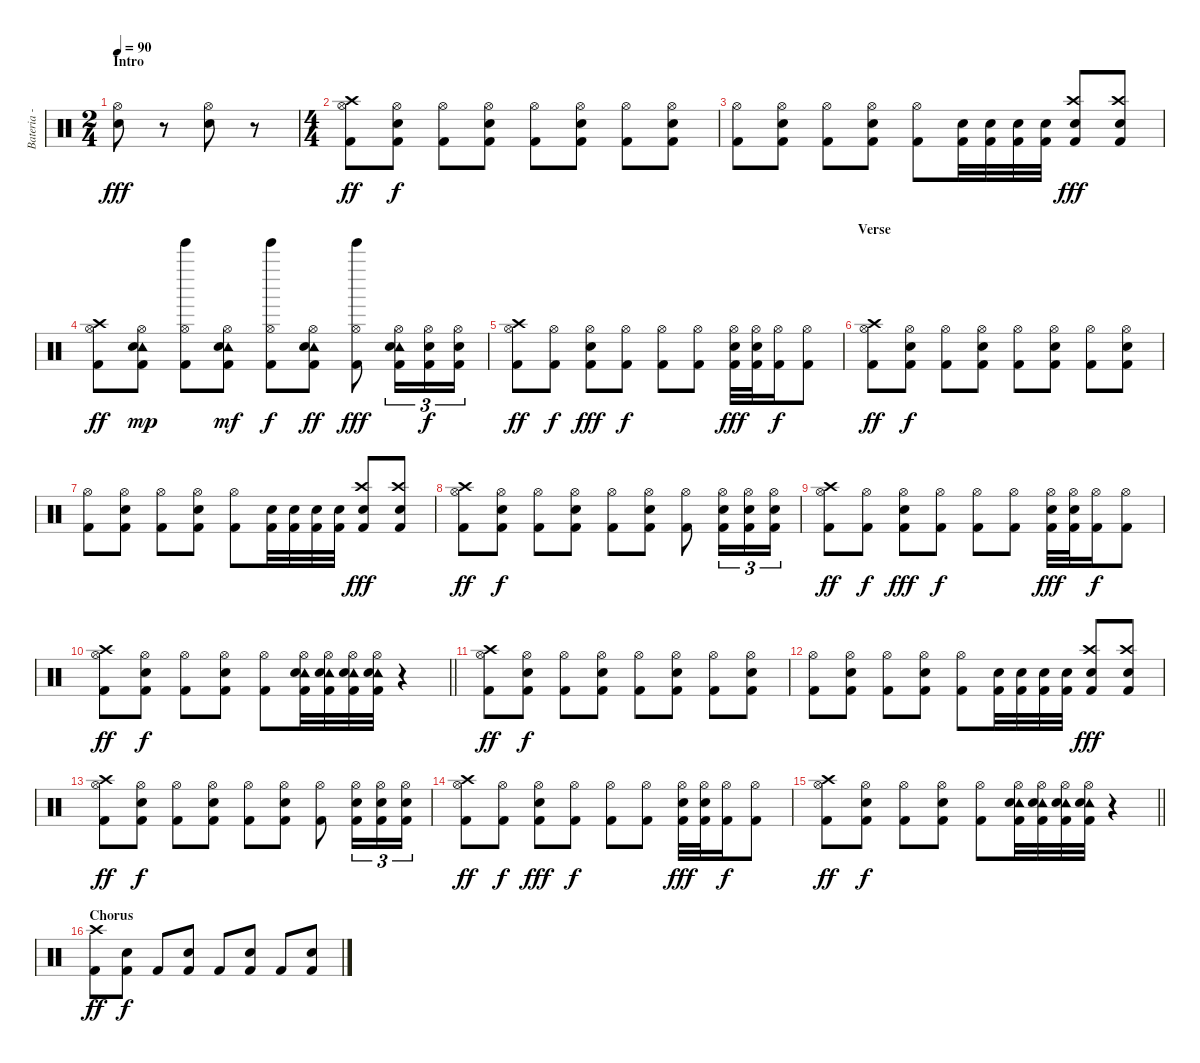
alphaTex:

\track ("Bateria - Larzon" "Bateria - ") {instrument percussion}
\staff {score}
\articulation defaults
\ts (2 4)
\section ("" "Intro")
\tempo 90
\clef neutral
\ks c
("Electric Snare (hit)" "Hi-Hat (open)").8{dy fff} r.8 ("Electric Snare (hit)" "Hi-Hat (open)").8 r.8 |
\ts (4 4)
("Kick (hit) 2" "Hi-Hat (open)" "Crash high (hit)").8{dy ff} ("Kick (hit) 2" "Hi-Hat (open)" "Snare (hit) 2").8{dy f} ("Kick (hit) 2" "Hi-Hat (open)").8 ("Kick (hit) 2" "Hi-Hat (open)" "Snare (hit) 2").8 ("Kick (hit) 2" "Hi-Hat (open)").8 ("Kick (hit) 2" "Hi-Hat (open)" "Snare (hit) 2").8 ("Kick (hit) 2" "Hi-Hat (open)").8 ("Kick (hit) 2" "Hi-Hat (open)" "Snare (hit) 2").8 |
("Kick (hit) 2" "Hi-Hat (open)").8 ("Kick (hit) 2" "Hi-Hat (open)" "Snare (hit) 2").8 ("Kick (hit) 2" "Hi-Hat (open)").8 ("Kick (hit) 2" "Hi-Hat (open)" "Snare (hit) 2").8 ("Kick (hit) 2" "Hi-Hat (open)").8 ("Kick (hit) 2" "Snare (hit) 2").32 ("Kick (hit) 2" "Snare (hit) 2").32 ("Kick (hit) 2" "Snare (hit) 2").32 ("Kick (hit) 2" "Snare (hit) 2").32 ("Kick (hit) 2" "Snare (hit) 2" "Crash high (hit)").8{dy fff} ("Kick (hit) 2" "Snare (hit) 2" "Crash high (hit)").8 |
("Kick (hit) 2" "Hi-Hat (open)" "Crash high (hit)").8{dy ff} ("Kick (hit) 2" "Hi-Hat (open)" "Tambourine (hit)" "Snare (hit) 2").8{dy mp} ("Kick (hit) 2" "Hi-Hat (open)" "Tinkle Bell (hit)").8 ("Kick (hit) 2" "Hi-Hat (open)" "Tambourine (hit)" "Snare (hit) 2").8{dy mf} ("Kick (hit) 2" "Hi-Hat (open)" "Tinkle Bell (hit)").8{dy f} ("Kick (hit) 2" "Hi-Hat (open)" "Tambourine (hit)" "Snare (hit) 2").8{dy ff} ("Kick (hit) 2" "Hi-Hat (open)" "Tinkle Bell (hit)").8{dy fff} ("Kick (hit) 2" "Hi-Hat (open)" "Tambourine (hit)" "Snare (hit) 2").16{tu (3 2)} ("Kick (hit) 2" "Hi-Hat (open)" "Snare (hit) 2").16{tu (3 2) dy f} ("Kick (hit) 2" "Hi-Hat (open)" "Snare (hit) 2").16{tu (3 2)} |
("Kick (hit) 2" "Hi-Hat (open)" "Crash high (hit)").8{dy ff} ("Kick (hit) 2" "Hi-Hat (open)").8{dy f} ("Kick (hit) 2" "Hi-Hat (open)" "Snare (hit) 2").8{dy fff} ("Kick (hit) 2" "Hi-Hat (open)").8{dy f} ("Kick (hit) 2" "Hi-Hat (open)").8 ("Kick (hit) 2" "Hi-Hat (open)").8 ("Kick (hit) 2" "Hi-Hat (open)" "Snare (hit) 2").32{dy fff} ("Kick (hit) 2" "Hi-Hat (open)" "Snare (hit) 2").32 ("Kick (hit) 2" "Hi-Hat (open)").16{dy f} ("Kick (hit) 2" "Hi-Hat (open)").8 |
\section ("" "Verse")
("Kick (hit) 2" "Hi-Hat (open)" "Crash high (hit)").8{dy ff} ("Kick (hit) 2" "Hi-Hat (open)" "Snare (hit) 2").8{dy f} ("Kick (hit) 2" "Hi-Hat (open)").8 ("Kick (hit) 2" "Hi-Hat (open)" "Snare (hit) 2").8 ("Kick (hit) 2" "Hi-Hat (open)").8 ("Kick (hit) 2" "Hi-Hat (open)" "Snare (hit) 2").8 ("Kick (hit) 2" "Hi-Hat (open)").8 ("Kick (hit) 2" "Hi-Hat (open)" "Snare (hit) 2").8 |
("Kick (hit) 2" "Hi-Hat (open)").8 ("Kick (hit) 2" "Hi-Hat (open)" "Snare (hit) 2").8 ("Kick (hit) 2" "Hi-Hat (open)").8 ("Kick (hit) 2" "Hi-Hat (open)" "Snare (hit) 2").8 ("Kick (hit) 2" "Hi-Hat (open)").8 ("Kick (hit) 2" "Snare (hit) 2").32 ("Kick (hit) 2" "Snare (hit) 2").32 ("Kick (hit) 2" "Snare (hit) 2").32 ("Kick (hit) 2" "Snare (hit) 2").32 ("Kick (hit) 2" "Snare (hit) 2" "Crash high (hit)").8{dy fff} ("Kick (hit) 2" "Snare (hit) 2" "Crash high (hit)").8 |
("Kick (hit) 2" "Hi-Hat (open)" "Crash high (hit)").8{dy ff} ("Kick (hit) 2" "Hi-Hat (open)" "Snare (hit) 2").8{dy f} ("Kick (hit) 2" "Hi-Hat (open)").8 ("Kick (hit) 2" "Hi-Hat (open)" "Snare (hit) 2").8 ("Kick (hit) 2" "Hi-Hat (open)").8 ("Kick (hit) 2" "Hi-Hat (open)" "Snare (hit) 2").8 ("Kick (hit) 2" "Hi-Hat (open)").8 ("Kick (hit) 2" "Hi-Hat (open)" "Snare (hit) 2").16{tu (3 2)} ("Kick (hit) 2" "Hi-Hat (open)" "Snare (hit) 2").16{tu (3 2)} ("Kick (hit) 2" "Hi-Hat (open)" "Snare (hit) 2").16{tu (3 2)} |
("Kick (hit) 2" "Hi-Hat (open)" "Crash high (hit)").8{dy ff} ("Kick (hit) 2" "Hi-Hat (open)").8{dy f} ("Kick (hit) 2" "Hi-Hat (open)" "Snare (hit) 2").8{dy fff} ("Kick (hit) 2" "Hi-Hat (open)").8{dy f} ("Kick (hit) 2" "Hi-Hat (open)").8 ("Kick (hit) 2" "Hi-Hat (open)").8 ("Kick (hit) 2" "Hi-Hat (open)" "Snare (hit) 2").32{dy fff} ("Kick (hit) 2" "Hi-Hat (open)" "Snare (hit) 2").32 ("Kick (hit) 2" "Hi-Hat (open)").16{dy f} ("Kick (hit) 2" "Hi-Hat (open)").8 |
\barLineRight lightlight
("Kick (hit) 2" "Hi-Hat (open)" "Crash high (hit)").8{dy ff} ("Kick (hit) 2" "Hi-Hat (open)" "Snare (hit) 2").8{dy f} ("Kick (hit) 2" "Hi-Hat (open)").8 ("Kick (hit) 2" "Hi-Hat (open)" "Snare (hit) 2").8 ("Kick (hit) 2" "Hi-Hat (open)").8 ("Kick (hit) 2" "Hi-Hat (open)" "Tambourine (hit)" "Snare (hit) 2").32 ("Kick (hit) 2" "Hi-Hat (open)" "Tambourine (hit)" "Snare (hit) 2").32 ("Kick (hit) 2" "Hi-Hat (open)" "Tambourine (hit)" "Snare (hit) 2").32 ("Kick (hit) 2" "Hi-Hat (open)" "Tambourine (hit)" "Snare (hit) 2").32 r.4 |
("Kick (hit) 2" "Hi-Hat (open)" "Crash high (hit)").8{dy ff} ("Kick (hit) 2" "Hi-Hat (open)" "Snare (hit) 2").8{dy f} ("Kick (hit) 2" "Hi-Hat (open)").8 ("Kick (hit) 2" "Hi-Hat (open)" "Snare (hit) 2").8 ("Kick (hit) 2" "Hi-Hat (open)").8 ("Kick (hit) 2" "Hi-Hat (open)" "Snare (hit) 2").8 ("Kick (hit) 2" "Hi-Hat (open)").8 ("Kick (hit) 2" "Hi-Hat (open)" "Snare (hit) 2").8 |
("Kick (hit) 2" "Hi-Hat (open)").8 ("Kick (hit) 2" "Hi-Hat (open)" "Snare (hit) 2").8 ("Kick (hit) 2" "Hi-Hat (open)").8 ("Kick (hit) 2" "Hi-Hat (open)" "Snare (hit) 2").8 ("Kick (hit) 2" "Hi-Hat (open)").8 ("Kick (hit) 2" "Snare (hit) 2").32 ("Kick (hit) 2" "Snare (hit) 2").32 ("Kick (hit) 2" "Snare (hit) 2").32 ("Kick (hit) 2" "Snare (hit) 2").32 ("Kick (hit) 2" "Snare (hit) 2" "Crash high (hit)").8{dy fff} ("Kick (hit) 2" "Snare (hit) 2" "Crash high (hit)").8 |
("Kick (hit) 2" "Hi-Hat (open)" "Crash high (hit)").8{dy ff} ("Kick (hit) 2" "Hi-Hat (open)" "Snare (hit) 2").8{dy f} ("Kick (hit) 2" "Hi-Hat (open)").8 ("Kick (hit) 2" "Hi-Hat (open)" "Snare (hit) 2").8 ("Kick (hit) 2" "Hi-Hat (open)").8 ("Kick (hit) 2" "Hi-Hat (open)" "Snare (hit) 2").8 ("Kick (hit) 2" "Hi-Hat (open)").8 ("Kick (hit) 2" "Hi-Hat (open)" "Snare (hit) 2").16{tu (3 2)} ("Kick (hit) 2" "Hi-Hat (open)" "Snare (hit) 2").16{tu (3 2)} ("Kick (hit) 2" "Hi-Hat (open)" "Snare (hit) 2").16{tu (3 2)} |
("Kick (hit) 2" "Hi-Hat (open)" "Crash high (hit)").8{dy ff} ("Kick (hit) 2" "Hi-Hat (open)").8{dy f} ("Kick (hit) 2" "Hi-Hat (open)" "Snare (hit) 2").8{dy fff} ("Kick (hit) 2" "Hi-Hat (open)").8{dy f} ("Kick (hit) 2" "Hi-Hat (open)").8 ("Kick (hit) 2" "Hi-Hat (open)").8 ("Kick (hit) 2" "Hi-Hat (open)" "Snare (hit) 2").32{dy fff} ("Kick (hit) 2" "Hi-Hat (open)" "Snare (hit) 2").32 ("Kick (hit) 2" "Hi-Hat (open)").16{dy f} ("Kick (hit) 2" "Hi-Hat (open)").8 |
\barLineRight lightlight
("Kick (hit) 2" "Hi-Hat (open)" "Crash high (hit)").8{dy ff} ("Kick (hit) 2" "Hi-Hat (open)" "Snare (hit) 2").8{dy f} ("Kick (hit) 2" "Hi-Hat (open)").8 ("Kick (hit) 2" "Hi-Hat (open)" "Snare (hit) 2").8 ("Kick (hit) 2" "Hi-Hat (open)").8 ("Kick (hit) 2" "Hi-Hat (open)" "Tambourine (hit)" "Snare (hit) 2").32 ("Kick (hit) 2" "Hi-Hat (open)" "Tambourine (hit)" "Snare (hit) 2").32 ("Kick (hit) 2" "Hi-Hat (open)" "Tambourine (hit)" "Snare (hit) 2").32 ("Kick (hit) 2" "Hi-Hat (open)" "Tambourine (hit)" "Snare (hit) 2").32 r.4 |
\section ("" "Chorus")
("Kick (hit) 2" "Crash high (hit)").8{dy ff} ("Kick (hit) 2" "Snare (hit) 2").8{dy f} "Kick (hit) 2".8 ("Kick (hit) 2" "Snare (hit) 2").8 "Kick (hit) 2".8 ("Kick (hit) 2" "Snare (hit) 2").8 "Kick (hit) 2".8 ("Kick (hit) 2" "Snare (hit) 2").8
